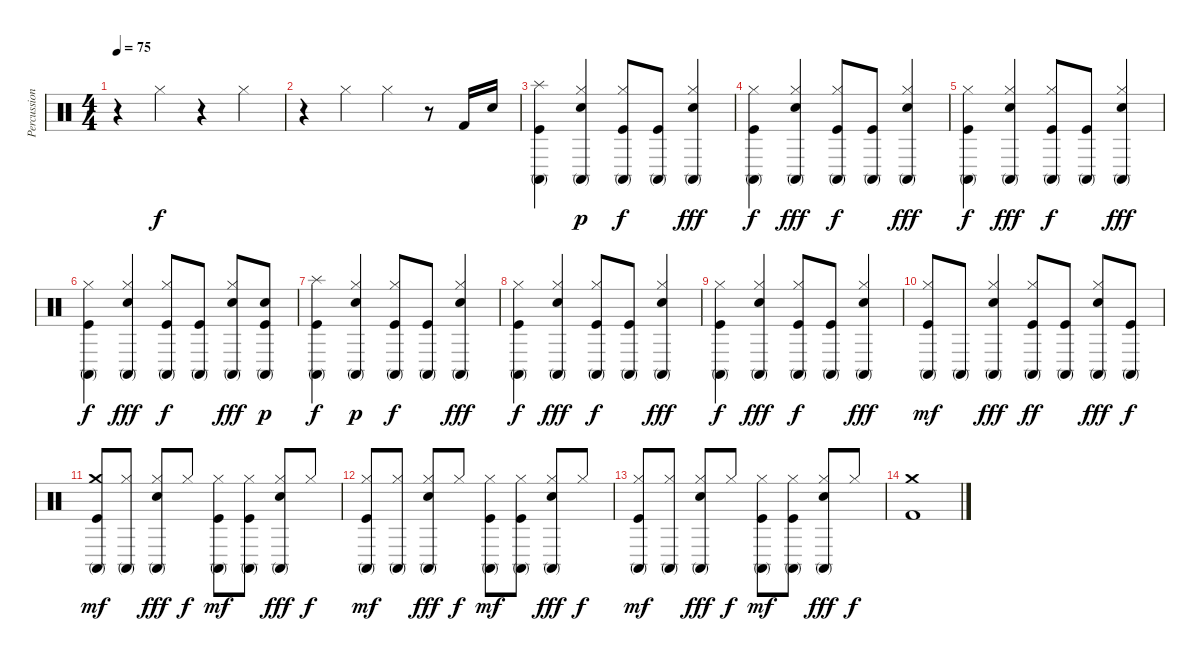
\track ("Percussion" "Percussion") {instrument percussion}
\staff {score}
\articulation defaults
\ts (4 4)
\tempo 75
\clef neutral
\ks c
r.4{dy f} "Hi-Hat (closed)".4 r.4 "Hi-Hat (closed)".4 |
r.4 "Hi-Hat (closed)".4 "Hi-Hat (closed)".4 r.8 "Kick (hit) 2".16 "Snare (hit) 2".16 |
("Splash (hit)" "Conga high (mute)" "Kick (hit)").4 ("Hi-Hat (closed)" "Snare (hit) 2" "Conga high (mute)").4{dy p} ("Hi-Hat (closed)" "Conga high (mute)" "Kick (hit)").8{dy f} ("Conga high (mute)" "Kick (hit)").8 ("Hi-Hat (closed)" "Snare (hit) 2" "Conga high (mute)").4{dy fff} |
("Hi-Hat (closed)" "Conga high (mute)" "Kick (hit)").4{dy f} ("Hi-Hat (closed)" "Snare (hit) 2" "Conga high (mute)").4{dy fff} ("Hi-Hat (closed)" "Conga high (mute)" "Kick (hit)").8{dy f} ("Conga high (mute)" "Kick (hit)").8 ("Hi-Hat (closed)" "Snare (hit) 2" "Conga high (mute)").4{dy fff} |
("Hi-Hat (closed)" "Conga high (mute)" "Kick (hit)").4{dy f} ("Hi-Hat (closed)" "Snare (hit) 2" "Conga high (mute)").4{dy fff} ("Hi-Hat (closed)" "Conga high (mute)" "Kick (hit)").8{dy f} ("Conga high (mute)" "Kick (hit)").8 ("Hi-Hat (closed)" "Snare (hit) 2" "Conga high (mute)").4{dy fff} |
("Hi-Hat (closed)" "Conga high (mute)" "Kick (hit)").4{dy f} ("Hi-Hat (closed)" "Snare (hit) 2" "Conga high (mute)").4{dy fff} ("Hi-Hat (closed)" "Conga high (mute)" "Kick (hit)").8{dy f} ("Conga high (mute)" "Kick (hit)").8 ("Hi-Hat (closed)" "Snare (hit) 2" "Conga high (mute)").8{dy fff} ("Snare (hit) 2" "Conga high (mute)" "Kick (hit)").8{dy p} |
("Splash (hit)" "Conga high (mute)" "Kick (hit)").4{dy f} ("Hi-Hat (closed)" "Snare (hit) 2" "Conga high (mute)").4{dy p} ("Hi-Hat (closed)" "Conga high (mute)" "Kick (hit)").8{dy f} ("Conga high (mute)" "Kick (hit)").8 ("Hi-Hat (closed)" "Snare (hit) 2" "Conga high (mute)").4{dy fff} |
("Hi-Hat (closed)" "Conga high (mute)" "Kick (hit)").4{dy f} ("Hi-Hat (closed)" "Snare (hit) 2" "Conga high (mute)").4{dy fff} ("Hi-Hat (closed)" "Conga high (mute)" "Kick (hit)").8{dy f} ("Conga high (mute)" "Kick (hit)").8 ("Hi-Hat (closed)" "Snare (hit) 2" "Conga high (mute)").4{dy fff} |
("Hi-Hat (closed)" "Conga high (mute)" "Kick (hit)").4{dy f} ("Hi-Hat (closed)" "Snare (hit) 2" "Conga high (mute)").4{dy fff} ("Hi-Hat (closed)" "Conga high (mute)" "Kick (hit)").8{dy f} ("Conga high (mute)" "Kick (hit)").8 ("Hi-Hat (closed)" "Snare (hit) 2" "Conga high (mute)").4{dy fff} |
("Hi-Hat (closed)" "Conga high (mute)" "Kick (hit)").8{dy mf} "Conga high (mute)".8 ("Hi-Hat (closed)" "Snare (hit) 2" "Conga high (mute)").4{dy fff} ("Hi-Hat (closed)" "Conga high (mute)" "Kick (hit)").8{dy ff} ("Conga high (mute)" "Kick (hit)").8 ("Hi-Hat (closed)" "Snare (hit) 2" "Conga high (mute)").8{dy fff} ("Conga high (mute)" "Kick (hit)").8{dy f} |
("Crash medium (hit)" "Conga high (mute)" "Kick (hit)").8{dy mf volume 16} ("Hi-Hat (closed)" "Conga high (mute)").8 ("Hi-Hat (closed)" "Snare (hit) 2" "Conga high (mute)").8{dy fff} "Hi-Hat (closed)".8{dy f} ("Hi-Hat (closed)" "Conga high (mute)" "Kick (hit)").8{dy mf} ("Hi-Hat (closed)" "Conga high (mute)" "Kick (hit)").8 ("Hi-Hat (closed)" "Snare (hit) 2" "Conga high (mute)").8{dy fff} "Hi-Hat (closed)".8{dy f} |
("Hi-Hat (closed)" "Conga high (mute)" "Kick (hit)").8{dy mf} ("Hi-Hat (closed)" "Conga high (mute)").8 ("Hi-Hat (closed)" "Snare (hit) 2" "Conga high (mute)").8{dy fff} "Hi-Hat (closed)".8{dy f} ("Hi-Hat (closed)" "Conga high (mute)" "Kick (hit)").8{dy mf} ("Hi-Hat (closed)" "Conga high (mute)" "Kick (hit)").8 ("Hi-Hat (closed)" "Snare (hit) 2" "Conga high (mute)").8{dy fff} "Hi-Hat (closed)".8{dy f} |
("Hi-Hat (closed)" "Conga high (mute)" "Kick (hit)").8{dy mf} ("Hi-Hat (closed)" "Conga high (mute)").8 ("Hi-Hat (closed)" "Snare (hit) 2" "Conga high (mute)").8{dy fff} "Hi-Hat (closed)".8{dy f} ("Hi-Hat (closed)" "Conga high (mute)" "Kick (hit)").8{dy mf} ("Hi-Hat (closed)" "Conga high (mute)" "Kick (hit)").8 ("Hi-Hat (closed)" "Snare (hit) 2" "Conga high (mute)").8{dy fff} "Hi-Hat (closed)".8{dy f} |
("Crash medium (hit)" "Kick (hit) 2").1
